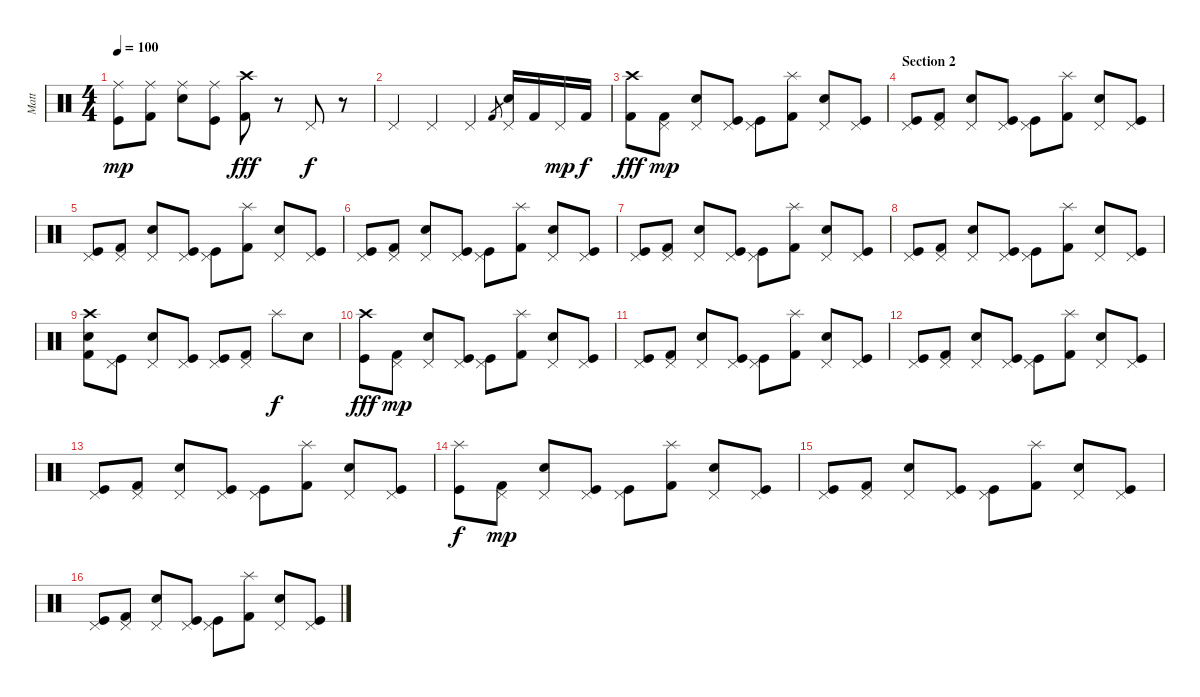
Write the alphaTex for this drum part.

\track ("Matt" "Matt") {instrument percussion}
\staff {score}
\articulation defaults
\ts (4 4)
\tempo 100
\clef neutral
\ks c
("Kick (hit)" "Ride (middle)").8{dy mp} ("Kick (hit) 2" "Ride (middle)").8 ("Electric Snare (hit)" "Ride (middle)").8 ("Kick (hit)" "Ride (middle)").8 ("Kick (hit) 2" "Crash high (hit)").8{dy fff} r.8 "Pedal Hi-Hat (hit)".8{dy f} r.8 |
"Pedal Hi-Hat (hit)".4 "Pedal Hi-Hat (hit)".4 "Pedal Hi-Hat (hit)".4 "Kick (hit) 2".8{gr} ("Electric Snare (hit)" "Pedal Hi-Hat (hit)").16 "Kick (hit) 2".16 "Pedal Hi-Hat (hit)".16{dy mp} "Kick (hit) 2".16{dy f} |
("Kick (hit) 2" "Crash high (hit)").8{dy fff} ("Kick (hit) 2" "Pedal Hi-Hat (hit)").8{dy mp} ("Electric Snare (hit)" "Pedal Hi-Hat (hit)").8 ("Kick (hit)" "Pedal Hi-Hat (hit)").8 ("Kick (hit)" "Pedal Hi-Hat (hit)").8 ("Kick (hit) 2" "Splash (hit)").8 ("Electric Snare (hit)" "Pedal Hi-Hat (hit)").8 ("Kick (hit)" "Pedal Hi-Hat (hit)").8 |
\section ("" "Section 2")
("Kick (hit)" "Pedal Hi-Hat (hit)").8 ("Kick (hit) 2" "Pedal Hi-Hat (hit)").8 ("Electric Snare (hit)" "Pedal Hi-Hat (hit)").8 ("Kick (hit)" "Pedal Hi-Hat (hit)").8 ("Kick (hit)" "Pedal Hi-Hat (hit)").8 ("Kick (hit) 2" "Splash (hit)").8 ("Electric Snare (hit)" "Pedal Hi-Hat (hit)").8 ("Kick (hit)" "Pedal Hi-Hat (hit)").8 |
("Kick (hit)" "Pedal Hi-Hat (hit)").8 ("Kick (hit) 2" "Pedal Hi-Hat (hit)").8 ("Electric Snare (hit)" "Pedal Hi-Hat (hit)").8 ("Kick (hit)" "Pedal Hi-Hat (hit)").8 ("Kick (hit)" "Pedal Hi-Hat (hit)").8 ("Kick (hit) 2" "Splash (hit)").8 ("Electric Snare (hit)" "Pedal Hi-Hat (hit)").8 ("Kick (hit)" "Pedal Hi-Hat (hit)").8 |
("Kick (hit)" "Pedal Hi-Hat (hit)").8 ("Kick (hit) 2" "Pedal Hi-Hat (hit)").8 ("Electric Snare (hit)" "Pedal Hi-Hat (hit)").8 ("Kick (hit)" "Pedal Hi-Hat (hit)").8 ("Kick (hit)" "Pedal Hi-Hat (hit)").8 ("Kick (hit) 2" "Splash (hit)").8 ("Electric Snare (hit)" "Pedal Hi-Hat (hit)").8 ("Kick (hit)" "Pedal Hi-Hat (hit)").8 |
("Kick (hit)" "Pedal Hi-Hat (hit)").8 ("Kick (hit) 2" "Pedal Hi-Hat (hit)").8 ("Electric Snare (hit)" "Pedal Hi-Hat (hit)").8 ("Kick (hit)" "Pedal Hi-Hat (hit)").8 ("Kick (hit)" "Pedal Hi-Hat (hit)").8 ("Kick (hit) 2" "Splash (hit)").8 ("Electric Snare (hit)" "Pedal Hi-Hat (hit)").8 ("Kick (hit)" "Pedal Hi-Hat (hit)").8 |
("Kick (hit)" "Pedal Hi-Hat (hit)").8 ("Kick (hit) 2" "Pedal Hi-Hat (hit)").8 ("Electric Snare (hit)" "Pedal Hi-Hat (hit)").8 ("Kick (hit)" "Pedal Hi-Hat (hit)").8 ("Kick (hit)" "Pedal Hi-Hat (hit)").8 ("Kick (hit) 2" "Splash (hit)").8 ("Electric Snare (hit)" "Pedal Hi-Hat (hit)").8 ("Kick (hit)" "Pedal Hi-Hat (hit)").8 |
("Electric Snare (hit)" "Kick (hit) 2" "Crash high (hit)").8 ("Kick (hit)" "Pedal Hi-Hat (hit)").8 ("Electric Snare (hit)" "Pedal Hi-Hat (hit)").8 ("Kick (hit)" "Pedal Hi-Hat (hit)").8 ("Kick (hit)" "Pedal Hi-Hat (hit)").8 ("Kick (hit) 2"{tr (36 16)} "Pedal Hi-Hat (hit)").8 "Splash (hit)".8{dy f} "Electric Snare (hit)"{tr (40 16)}.8 |
("Kick (hit)" "Crash high (hit)").8{dy fff} ("Kick (hit) 2" "Pedal Hi-Hat (hit)").8{dy mp} ("Electric Snare (hit)" "Pedal Hi-Hat (hit)").8 ("Kick (hit)" "Pedal Hi-Hat (hit)").8 ("Kick (hit)" "Pedal Hi-Hat (hit)").8 ("Kick (hit) 2" "Splash (hit)").8 ("Electric Snare (hit)" "Pedal Hi-Hat (hit)").8 ("Kick (hit)" "Pedal Hi-Hat (hit)").8 |
("Kick (hit)" "Pedal Hi-Hat (hit)").8 ("Kick (hit) 2" "Pedal Hi-Hat (hit)").8 ("Electric Snare (hit)" "Pedal Hi-Hat (hit)").8 ("Kick (hit)" "Pedal Hi-Hat (hit)").8 ("Kick (hit)" "Pedal Hi-Hat (hit)").8 ("Kick (hit) 2" "Splash (hit)").8 ("Electric Snare (hit)" "Pedal Hi-Hat (hit)").8 ("Kick (hit)" "Pedal Hi-Hat (hit)").8 |
("Kick (hit)" "Pedal Hi-Hat (hit)").8 ("Kick (hit) 2" "Pedal Hi-Hat (hit)").8 ("Electric Snare (hit)" "Pedal Hi-Hat (hit)").8 ("Kick (hit)" "Pedal Hi-Hat (hit)").8 ("Kick (hit)" "Pedal Hi-Hat (hit)").8 ("Kick (hit) 2" "Splash (hit)").8 ("Electric Snare (hit)" "Pedal Hi-Hat (hit)").8 ("Kick (hit)" "Pedal Hi-Hat (hit)").8 |
("Kick (hit)" "Pedal Hi-Hat (hit)").8 ("Kick (hit) 2" "Pedal Hi-Hat (hit)").8 ("Electric Snare (hit)" "Pedal Hi-Hat (hit)").8 ("Kick (hit)" "Pedal Hi-Hat (hit)").8 ("Kick (hit)" "Pedal Hi-Hat (hit)").8 ("Kick (hit) 2" "Splash (hit)").8 ("Electric Snare (hit)" "Pedal Hi-Hat (hit)").8 ("Kick (hit)" "Pedal Hi-Hat (hit)").8 |
("Kick (hit)" "Splash (hit)").8{dy f} ("Kick (hit) 2" "Pedal Hi-Hat (hit)").8{dy mp} ("Electric Snare (hit)" "Pedal Hi-Hat (hit)").8 ("Kick (hit)" "Pedal Hi-Hat (hit)").8 ("Kick (hit)" "Pedal Hi-Hat (hit)").8 ("Kick (hit) 2" "Splash (hit)").8 ("Electric Snare (hit)" "Pedal Hi-Hat (hit)").8 ("Kick (hit)" "Pedal Hi-Hat (hit)").8 |
("Kick (hit)" "Pedal Hi-Hat (hit)").8 ("Kick (hit) 2" "Pedal Hi-Hat (hit)").8 ("Electric Snare (hit)" "Pedal Hi-Hat (hit)").8 ("Kick (hit)" "Pedal Hi-Hat (hit)").8 ("Kick (hit)" "Pedal Hi-Hat (hit)").8 ("Kick (hit) 2" "Splash (hit)").8 ("Electric Snare (hit)" "Pedal Hi-Hat (hit)").8 ("Kick (hit)" "Pedal Hi-Hat (hit)").8 |
("Kick (hit)" "Pedal Hi-Hat (hit)").8 ("Kick (hit) 2" "Pedal Hi-Hat (hit)").8 ("Electric Snare (hit)" "Pedal Hi-Hat (hit)").8 ("Kick (hit)" "Pedal Hi-Hat (hit)").8 ("Kick (hit)" "Pedal Hi-Hat (hit)").8 ("Kick (hit) 2" "Splash (hit)").8 ("Electric Snare (hit)" "Pedal Hi-Hat (hit)").8 ("Kick (hit)" "Pedal Hi-Hat (hit)").8
